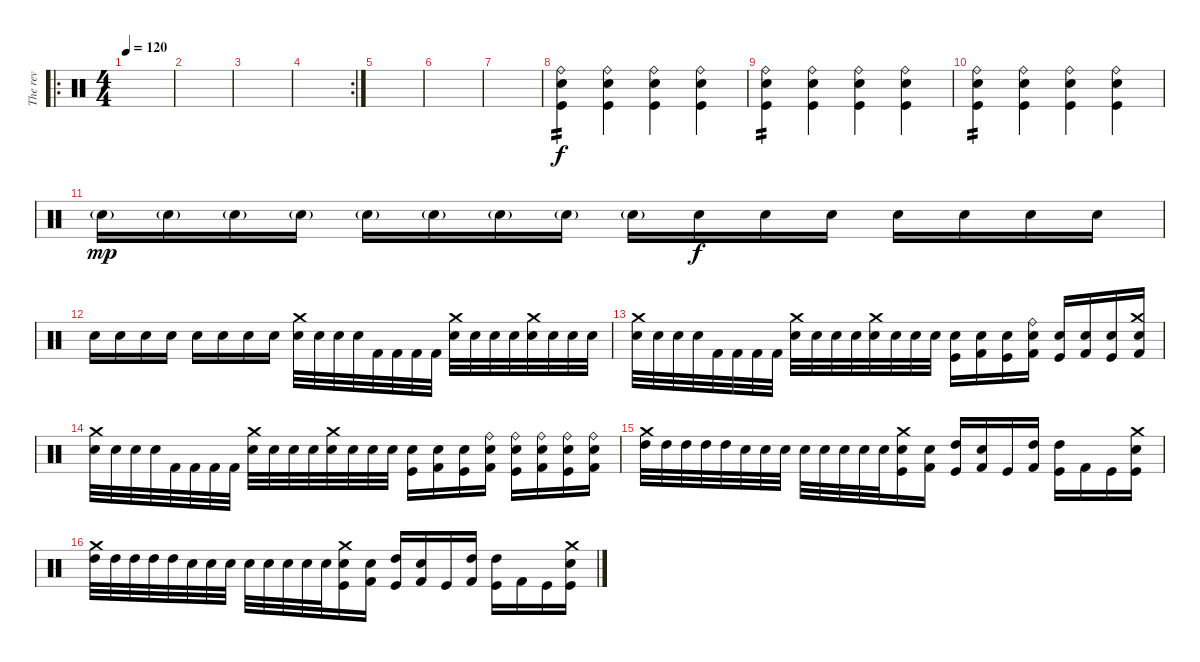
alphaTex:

\track ("The rev" "The rev") {instrument percussion}
\staff {score}
\articulation defaults
\ro
\ts (4 4)
\tempo 120
\clef neutral
\ks c
|
|
|
\rc 2
|
|
|
|
("Ride (bell)" "Electric Snare (hit)" "Kick (hit)").4{tp 2} ("Ride (bell)" "Electric Snare (hit)" "Kick (hit)").4 ("Ride (bell)" "Electric Snare (hit)" "Kick (hit)").4 ("Ride (bell)" "Electric Snare (hit)" "Kick (hit)").4 |
("Ride (bell)" "Electric Snare (hit)" "Kick (hit)").4{tp 2} ("Ride (bell)" "Electric Snare (hit)" "Kick (hit)").4 ("Ride (bell)" "Electric Snare (hit)" "Kick (hit)").4 ("Ride (bell)" "Electric Snare (hit)" "Kick (hit)").4 |
("Ride (bell)" "Electric Snare (hit)" "Kick (hit)").4{tp 2} ("Ride (bell)" "Electric Snare (hit)" "Kick (hit)").4 ("Ride (bell)" "Electric Snare (hit)" "Kick (hit)").4 ("Ride (bell)" "Electric Snare (hit)" "Kick (hit)").4 |
"Snare (hit) 2"{g}.16{dy mp} "Snare (hit) 2"{g}.16 "Snare (hit) 2"{g}.16 "Snare (hit) 2"{g}.16 "Snare (hit) 2"{g}.16 "Snare (hit) 2"{g}.16 "Snare (hit) 2"{g}.16 "Snare (hit) 2"{g}.16 "Snare (hit) 2"{g}.16 "Snare (hit) 2".16{dy f} "Snare (hit) 2".16 "Snare (hit) 2".16 "Snare (hit) 2".16 "Snare (hit) 2".16 "Snare (hit) 2".16 "Snare (hit) 2".16 |
"Snare (hit) 2".16 "Snare (hit) 2".16 "Snare (hit) 2".16 "Snare (hit) 2".16 "Snare (hit) 2".16 "Snare (hit) 2".16 "Snare (hit) 2".16 "Snare (hit) 2".16 ("Crash medium (hit)" "Electric Snare (hit)").32 "Electric Snare (hit)".32 "Electric Snare (hit)".32 "Electric Snare (hit)".32 "Kick (hit) 2".32 "Kick (hit) 2".32 "Kick (hit) 2".32 "Kick (hit) 2".32 ("Crash medium (hit)" "Electric Snare (hit)").32 "Electric Snare (hit)".32 "Electric Snare (hit)".32 "Electric Snare (hit)".32 ("Crash medium (hit)" "Electric Snare (hit)").32 "Electric Snare (hit)".32 "Electric Snare (hit)".32 "Electric Snare (hit)".32 |
("Crash medium (hit)" "Electric Snare (hit)").32 "Electric Snare (hit)".32 "Electric Snare (hit)".32 "Electric Snare (hit)".32 "Kick (hit) 2".32 "Kick (hit) 2".32 "Kick (hit) 2".32 "Kick (hit) 2".32 ("Crash medium (hit)" "Electric Snare (hit)").32 "Electric Snare (hit)".32 "Electric Snare (hit)".32 "Electric Snare (hit)".32 ("Crash medium (hit)" "Electric Snare (hit)").32 "Electric Snare (hit)".32 "Electric Snare (hit)".32 "Electric Snare (hit)".32 ("Snare (hit) 2" "Kick (hit)").16 ("Snare (hit) 2" "Kick (hit) 2").16 ("Snare (hit) 2" "Kick (hit)").16 ("Ride (bell)" "Snare (hit) 2" "Kick (hit) 2").16 ("Snare (hit) 2" "Kick (hit)").16 ("Snare (hit) 2" "Kick (hit) 2").16 ("Snare (hit) 2" "Kick (hit)").16 ("Crash medium (hit)" "Snare (hit) 2" "Kick (hit) 2").16 |
("Crash medium (hit)" "Electric Snare (hit)").32 "Electric Snare (hit)".32 "Electric Snare (hit)".32 "Electric Snare (hit)".32 "Kick (hit) 2".32 "Kick (hit) 2".32 "Kick (hit) 2".32 "Kick (hit) 2".32 ("Crash medium (hit)" "Electric Snare (hit)").32 "Electric Snare (hit)".32 "Electric Snare (hit)".32 "Electric Snare (hit)".32 ("Crash medium (hit)" "Electric Snare (hit)").32 "Electric Snare (hit)".32 "Electric Snare (hit)".32 "Electric Snare (hit)".32 ("Snare (hit) 2" "Kick (hit)").16 ("Snare (hit) 2" "Kick (hit) 2").16 ("Snare (hit) 2" "Kick (hit)").16 ("Ride (bell)" "Snare (hit) 2" "Kick (hit) 2").16 ("Ride (bell)" "Snare (hit) 2" "Kick (hit)").16 ("Ride (bell)" "Snare (hit) 2" "Kick (hit) 2").16 ("Ride (bell)" "Snare (hit) 2" "Kick (hit)").16 ("Ride (bell)" "Snare (hit) 2" "Kick (hit) 2").16 |
("Crash medium (hit)" "High Tom (hit)").32 "High Tom (hit)".32 "High Tom (hit)".32 "High Tom (hit)".32 "High Tom (hit)".32 "Electric Snare (hit)".32 "Electric Snare (hit)".32 "Electric Snare (hit)".32 "Electric Snare (hit)".32 "Snare (hit) 2".32 "Snare (hit) 2".32 "Snare (hit) 2".32 "Snare (hit) 2".32 ("Crash medium (hit)" "Electric Snare (hit)" "Kick (hit)").16 ("Snare (hit) 2" "Kick (hit) 2").16 ("High Tom (hit)" "Kick (hit)").16 ("Electric Snare (hit)" "Kick (hit) 2").16 "Kick (hit)".16 ("High Tom (hit)" "Kick (hit) 2").16 ("High Tom (hit)" "Kick (hit)").16 "Kick (hit) 2".16 "Kick (hit)".16 ("Crash medium (hit)" "Electric Snare (hit)" "Kick (hit)").16 |
("Crash medium (hit)" "High Tom (hit)").32 "High Tom (hit)".32 "High Tom (hit)".32 "High Tom (hit)".32 "High Tom (hit)".32 "Electric Snare (hit)".32 "Electric Snare (hit)".32 "Electric Snare (hit)".32 "Electric Snare (hit)".32 "Snare (hit) 2".32 "Snare (hit) 2".32 "Snare (hit) 2".32 "Snare (hit) 2".32 ("Crash medium (hit)" "Electric Snare (hit)" "Kick (hit)").16 ("Snare (hit) 2" "Kick (hit) 2").16 ("High Tom (hit)" "Kick (hit)").16 ("Electric Snare (hit)" "Kick (hit) 2").16 "Kick (hit)".16 ("High Tom (hit)" "Kick (hit) 2").16 ("High Tom (hit)" "Kick (hit)").16 "Kick (hit) 2".16 "Kick (hit)".16 ("Crash medium (hit)" "Electric Snare (hit)" "Kick (hit)").16
